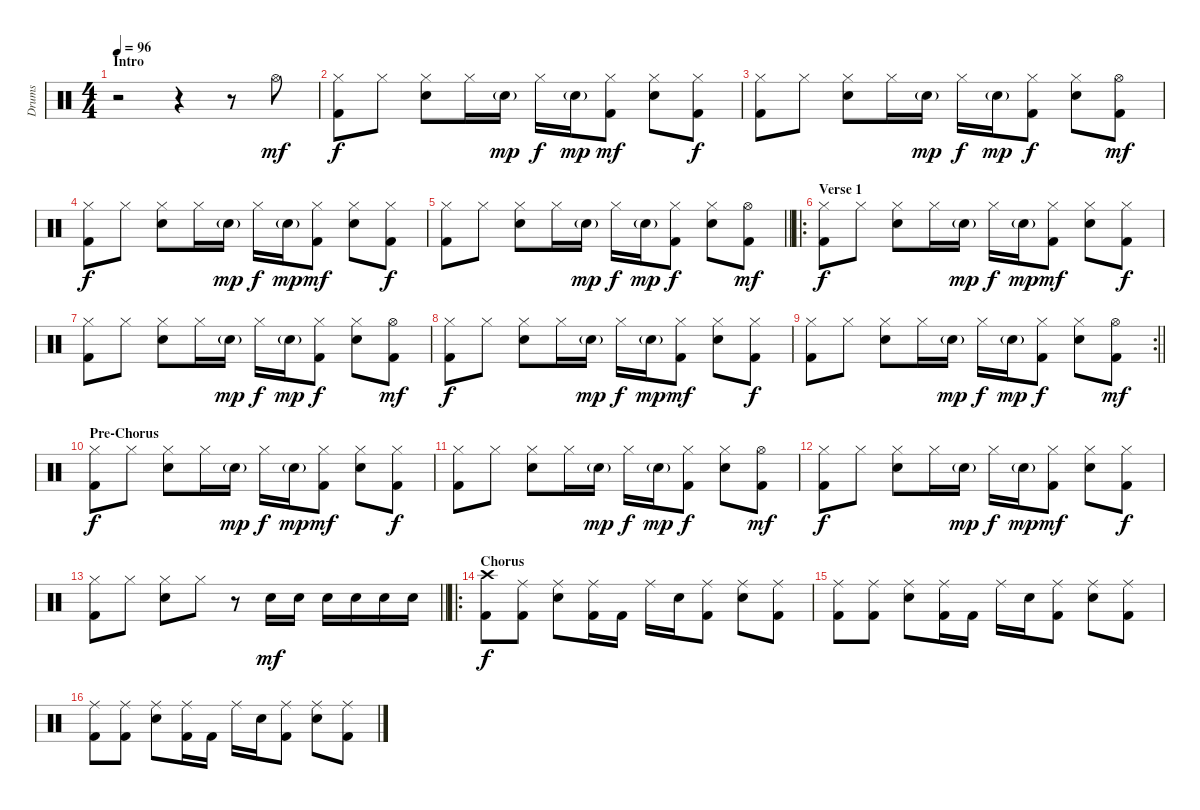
\track ("Drums" "Drums") {instrument percussion}
\staff {score}
\articulation defaults
\ts (4 4)
\section ("" "Intro")
\tempo 96
\clef neutral
\ks c
r.2{dy mf} r.4 r.8 "Hi-Hat (open)".8 |
("Hi-Hat (closed)" "Kick (hit) 2").8{dy f} "Hi-Hat (closed)".8 ("Hi-Hat (closed)" "Electric Snare (hit)").8 "Hi-Hat (closed)".16 "Electric Snare (hit)"{g}.16{dy mp} "Hi-Hat (closed)".16{dy f} "Electric Snare (hit)"{g}.16{dy mp} ("Hi-Hat (closed)" "Kick (hit) 2").8{dy mf} ("Hi-Hat (closed)" "Electric Snare (hit)").8 ("Hi-Hat (closed)" "Kick (hit) 2").8{dy f} |
("Hi-Hat (closed)" "Kick (hit) 2").8 "Hi-Hat (closed)".8 ("Hi-Hat (closed)" "Electric Snare (hit)").8 "Hi-Hat (closed)".16 "Electric Snare (hit)"{g}.16{dy mp} "Hi-Hat (closed)".16{dy f} "Electric Snare (hit)"{g}.16{dy mp} ("Hi-Hat (closed)" "Kick (hit) 2").8{dy f} ("Hi-Hat (closed)" "Electric Snare (hit)").8 ("Hi-Hat (open)" "Kick (hit) 2").8{dy mf} |
("Hi-Hat (closed)" "Kick (hit) 2").8{dy f} "Hi-Hat (closed)".8 ("Hi-Hat (closed)" "Electric Snare (hit)").8 "Hi-Hat (closed)".16 "Electric Snare (hit)"{g}.16{dy mp} "Hi-Hat (closed)".16{dy f} "Electric Snare (hit)"{g}.16{dy mp} ("Hi-Hat (closed)" "Kick (hit) 2").8{dy mf} ("Hi-Hat (closed)" "Electric Snare (hit)").8 ("Hi-Hat (closed)" "Kick (hit) 2").8{dy f} |
\barLineRight lightlight
("Hi-Hat (closed)" "Kick (hit) 2").8 "Hi-Hat (closed)".8 ("Hi-Hat (closed)" "Electric Snare (hit)").8 "Hi-Hat (closed)".16 "Electric Snare (hit)"{g}.16{dy mp} "Hi-Hat (closed)".16{dy f} "Electric Snare (hit)"{g}.16{dy mp} ("Hi-Hat (closed)" "Kick (hit) 2").8{dy f} ("Hi-Hat (closed)" "Electric Snare (hit)").8 ("Hi-Hat (open)" "Kick (hit) 2").8{dy mf} |
\ro
\section ("" "Verse 1")
("Hi-Hat (closed)" "Kick (hit) 2").8{dy f} "Hi-Hat (closed)".8 ("Hi-Hat (closed)" "Electric Snare (hit)").8 "Hi-Hat (closed)".16 "Electric Snare (hit)"{g}.16{dy mp} "Hi-Hat (closed)".16{dy f} "Electric Snare (hit)"{g}.16{dy mp} ("Hi-Hat (closed)" "Kick (hit) 2").8{dy mf} ("Hi-Hat (closed)" "Electric Snare (hit)").8 ("Hi-Hat (closed)" "Kick (hit) 2").8{dy f} |
("Hi-Hat (closed)" "Kick (hit) 2").8 "Hi-Hat (closed)".8 ("Hi-Hat (closed)" "Electric Snare (hit)").8 "Hi-Hat (closed)".16 "Electric Snare (hit)"{g}.16{dy mp} "Hi-Hat (closed)".16{dy f} "Electric Snare (hit)"{g}.16{dy mp} ("Hi-Hat (closed)" "Kick (hit) 2").8{dy f} ("Hi-Hat (closed)" "Electric Snare (hit)").8 ("Hi-Hat (open)" "Kick (hit) 2").8{dy mf} |
("Hi-Hat (closed)" "Kick (hit) 2").8{dy f} "Hi-Hat (closed)".8 ("Hi-Hat (closed)" "Electric Snare (hit)").8 "Hi-Hat (closed)".16 "Electric Snare (hit)"{g}.16{dy mp} "Hi-Hat (closed)".16{dy f} "Electric Snare (hit)"{g}.16{dy mp} ("Hi-Hat (closed)" "Kick (hit) 2").8{dy mf} ("Hi-Hat (closed)" "Electric Snare (hit)").8 ("Hi-Hat (closed)" "Kick (hit) 2").8{dy f} |
\rc 2
\barLineRight lightlight
("Hi-Hat (closed)" "Kick (hit) 2").8 "Hi-Hat (closed)".8 ("Hi-Hat (closed)" "Electric Snare (hit)").8 "Hi-Hat (closed)".16 "Electric Snare (hit)"{g}.16{dy mp} "Hi-Hat (closed)".16{dy f} "Electric Snare (hit)"{g}.16{dy mp} ("Hi-Hat (closed)" "Kick (hit) 2").8{dy f} ("Hi-Hat (closed)" "Electric Snare (hit)").8 ("Hi-Hat (open)" "Kick (hit) 2").8{dy mf} |
\section ("" "Pre-Chorus")
("Hi-Hat (closed)" "Kick (hit) 2").8{dy f} "Hi-Hat (closed)".8 ("Hi-Hat (closed)" "Electric Snare (hit)").8 "Hi-Hat (closed)".16 "Electric Snare (hit)"{g}.16{dy mp} "Hi-Hat (closed)".16{dy f} "Electric Snare (hit)"{g}.16{dy mp} ("Hi-Hat (closed)" "Kick (hit) 2").8{dy mf} ("Hi-Hat (closed)" "Electric Snare (hit)").8 ("Hi-Hat (closed)" "Kick (hit) 2").8{dy f} |
("Hi-Hat (closed)" "Kick (hit) 2").8 "Hi-Hat (closed)".8 ("Hi-Hat (closed)" "Electric Snare (hit)").8 "Hi-Hat (closed)".16 "Electric Snare (hit)"{g}.16{dy mp} "Hi-Hat (closed)".16{dy f} "Electric Snare (hit)"{g}.16{dy mp} ("Hi-Hat (closed)" "Kick (hit) 2").8{dy f} ("Hi-Hat (closed)" "Electric Snare (hit)").8 ("Hi-Hat (open)" "Kick (hit) 2").8{dy mf} |
("Hi-Hat (closed)" "Kick (hit) 2").8{dy f} "Hi-Hat (closed)".8 ("Hi-Hat (closed)" "Electric Snare (hit)").8 "Hi-Hat (closed)".16 "Electric Snare (hit)"{g}.16{dy mp} "Hi-Hat (closed)".16{dy f} "Electric Snare (hit)"{g}.16{dy mp} ("Hi-Hat (closed)" "Kick (hit) 2").8{dy mf} ("Hi-Hat (closed)" "Electric Snare (hit)").8 ("Hi-Hat (closed)" "Kick (hit) 2").8{dy f} |
\barLineRight lightlight
("Hi-Hat (closed)" "Kick (hit) 2").8 "Hi-Hat (closed)".8 ("Hi-Hat (closed)" "Electric Snare (hit)").8 "Hi-Hat (closed)".8 r.8 "Electric Snare (hit)".16{dy mf volume 14} "Electric Snare (hit)".16 "Electric Snare (hit)".16 "Electric Snare (hit)".16 "Electric Snare (hit)".16 "Electric Snare (hit)".16 |
\ro
\section ("" "Chorus")
("Crash high (hit)" "Kick (hit) 2").8{dy f} ("Ride (middle)" "Kick (hit) 2").8 ("Ride (middle)" "Electric Snare (hit)").8 ("Ride (middle)" "Kick (hit) 2").16 "Kick (hit) 2".16 "Ride (middle)".16 "Electric Snare (hit)".16 ("Ride (middle)" "Kick (hit) 2").8 ("Ride (middle)" "Electric Snare (hit)").8 ("Ride (middle)" "Kick (hit) 2").8 |
("Ride (middle)" "Kick (hit) 2").8 ("Ride (middle)" "Kick (hit) 2").8 ("Ride (middle)" "Electric Snare (hit)").8 ("Ride (middle)" "Kick (hit) 2").16 "Kick (hit) 2".16 "Ride (middle)".16 "Electric Snare (hit)".16 ("Ride (middle)" "Kick (hit) 2").8 ("Ride (middle)" "Electric Snare (hit)").8 ("Ride (middle)" "Kick (hit) 2").8 |
("Ride (middle)" "Kick (hit) 2").8 ("Ride (middle)" "Kick (hit) 2").8 ("Ride (middle)" "Electric Snare (hit)").8 ("Ride (middle)" "Kick (hit) 2").16 "Kick (hit) 2".16 "Ride (middle)".16 "Electric Snare (hit)".16 ("Ride (middle)" "Kick (hit) 2").8 ("Ride (middle)" "Electric Snare (hit)").8 ("Ride (middle)" "Kick (hit) 2").8
